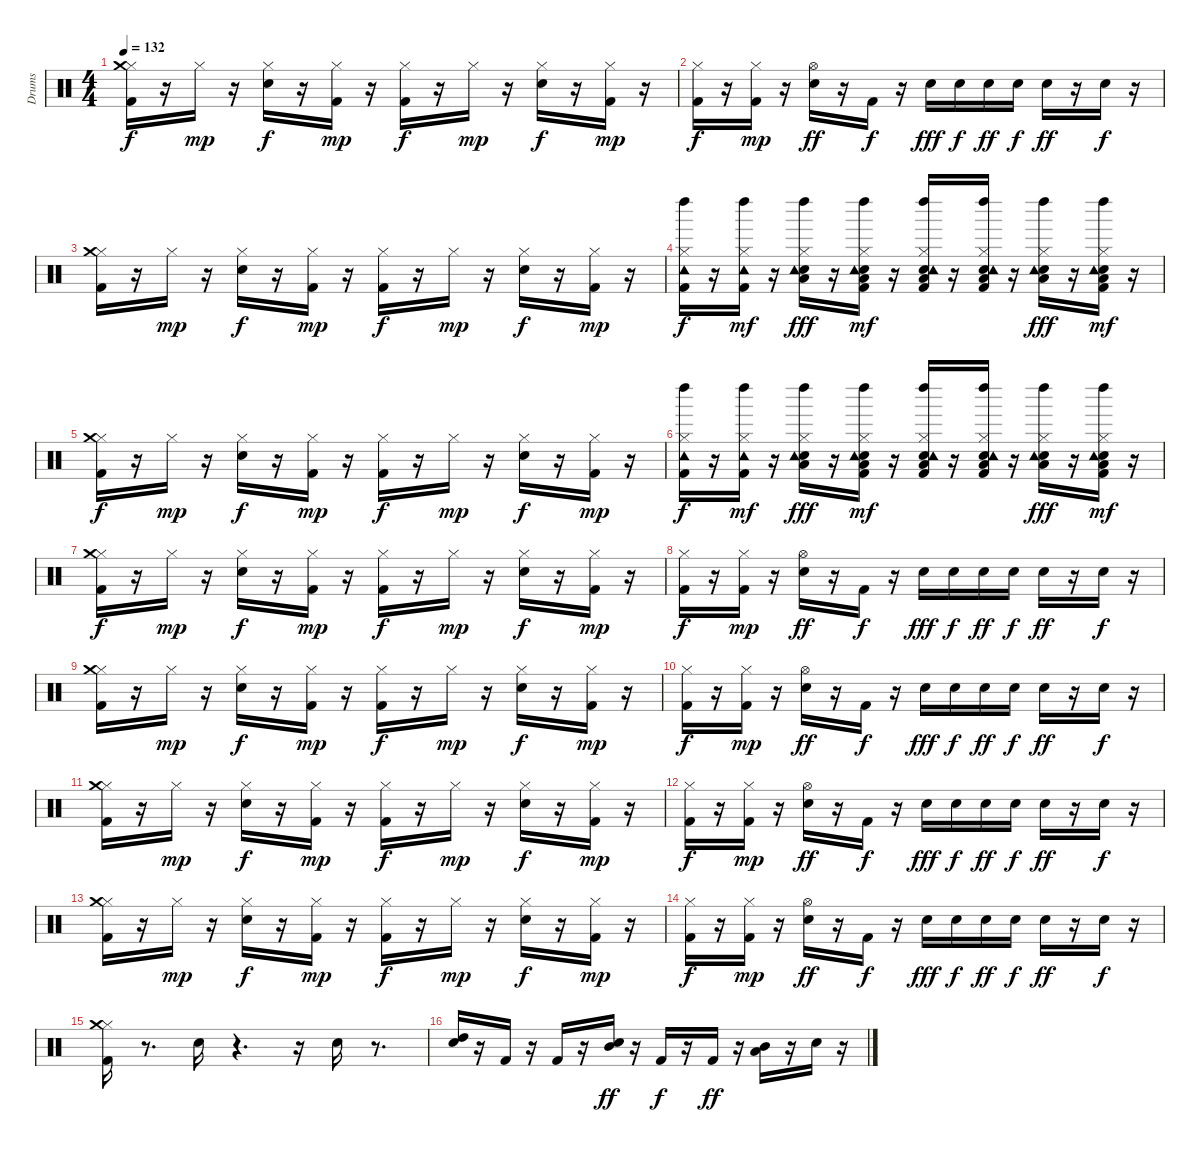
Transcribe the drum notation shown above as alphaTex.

\track ("Drums" "Drums") {instrument percussion}
\staff {score}
\articulation defaults
\ts (4 4)
\tempo 132
\clef neutral
\ks c
("Kick (hit) 2" "Hi-Hat (closed)" "Crash medium (hit)").16{dy f} r.16 "Hi-Hat (closed)".16{dy mp} r.16 ("Snare (hit) 2" "Hi-Hat (closed)").16{dy f} r.16 ("Kick (hit) 2" "Hi-Hat (closed)").16{dy mp} r.16 ("Kick (hit) 2" "Hi-Hat (closed)").16{dy f} r.16 "Hi-Hat (closed)".16{dy mp} r.16 ("Snare (hit) 2" "Hi-Hat (closed)").16{dy f} r.16 ("Kick (hit) 2" "Hi-Hat (closed)").16{dy mp} r.16 |
("Kick (hit) 2" "Hi-Hat (closed)").16{dy f} r.16 ("Kick (hit) 2" "Hi-Hat (closed)").16{dy mp} r.16 ("Snare (hit) 2" "Hi-Hat (open)").16{dy ff} r.16 "Kick (hit) 2".16{dy f} r.16 "Snare (hit) 2".16{dy fff} "Snare (hit) 2".16{dy f} "Snare (hit) 2".16{dy ff} "Snare (hit) 2".16{dy f} "Snare (hit) 2".16{dy ff} r.16 "Snare (hit) 2".16{dy f} r.16 |
("Kick (hit) 2" "Hi-Hat (closed)" "Crash medium (hit)").16 r.16 "Hi-Hat (closed)".16{dy mp} r.16 ("Snare (hit) 2" "Hi-Hat (closed)").16{dy f} r.16 ("Kick (hit) 2" "Hi-Hat (closed)").16{dy mp} r.16 ("Kick (hit) 2" "Hi-Hat (closed)").16{dy f} r.16 "Hi-Hat (closed)".16{dy mp} r.16 ("Snare (hit) 2" "Hi-Hat (closed)").16{dy f} r.16 ("Kick (hit) 2" "Hi-Hat (closed)").16{dy mp} r.16 |
("Kick (hit) 2" "Hi-Hat (closed)" "Tambourine (hit)" "Left Maraca (hit)").16{dy f} r.16 ("Kick (hit) 2" "Hi-Hat (closed)" "Tambourine (hit)" "Left Maraca (hit)").16{dy mf} r.16 ("Snare (hit) 2" "Hi-Hat (closed)" "Low Floor Tom (hit)" "Tambourine (hit)" "Left Maraca (hit)").16{dy fff} r.16 ("Kick (hit) 2" "Snare (hit) 2" "Hi-Hat (closed)" "Low Floor Tom (hit)" "Tambourine (hit)" "Left Maraca (hit)").16{dy mf} r.16 ("Kick (hit) 2" "Snare (hit) 2" "Hi-Hat (closed)" "Low Floor Tom (hit)" "Tambourine (hit)" "Left Maraca (hit)").16 r.16 ("Kick (hit) 2" "Snare (hit) 2" "Hi-Hat (closed)" "Low Floor Tom (hit)" "Tambourine (hit)" "Left Maraca (hit)").16 r.16 ("Snare (hit) 2" "Hi-Hat (closed)" "Low Floor Tom (hit)" "Tambourine (hit)" "Left Maraca (hit)").16{dy fff} r.16 ("Kick (hit) 2" "Snare (hit) 2" "Hi-Hat (closed)" "Low Floor Tom (hit)" "Tambourine (hit)" "Left Maraca (hit)").16{dy mf} r.16 |
("Kick (hit) 2" "Hi-Hat (closed)" "Crash medium (hit)").16{dy f} r.16 "Hi-Hat (closed)".16{dy mp} r.16 ("Snare (hit) 2" "Hi-Hat (closed)").16{dy f} r.16 ("Kick (hit) 2" "Hi-Hat (closed)").16{dy mp} r.16 ("Kick (hit) 2" "Hi-Hat (closed)").16{dy f} r.16 "Hi-Hat (closed)".16{dy mp} r.16 ("Snare (hit) 2" "Hi-Hat (closed)").16{dy f} r.16 ("Kick (hit) 2" "Hi-Hat (closed)").16{dy mp} r.16 |
("Kick (hit) 2" "Hi-Hat (closed)" "Tambourine (hit)" "Left Maraca (hit)").16{dy f} r.16 ("Kick (hit) 2" "Hi-Hat (closed)" "Tambourine (hit)" "Left Maraca (hit)").16{dy mf} r.16 ("Snare (hit) 2" "Hi-Hat (closed)" "Low Floor Tom (hit)" "Tambourine (hit)" "Left Maraca (hit)").16{dy fff} r.16 ("Kick (hit) 2" "Snare (hit) 2" "Hi-Hat (closed)" "Low Floor Tom (hit)" "Tambourine (hit)" "Left Maraca (hit)").16{dy mf} r.16 ("Kick (hit) 2" "Snare (hit) 2" "Hi-Hat (closed)" "Low Floor Tom (hit)" "Tambourine (hit)" "Left Maraca (hit)").16 r.16 ("Kick (hit) 2" "Snare (hit) 2" "Hi-Hat (closed)" "Low Floor Tom (hit)" "Tambourine (hit)" "Left Maraca (hit)").16 r.16 ("Snare (hit) 2" "Hi-Hat (closed)" "Low Floor Tom (hit)" "Tambourine (hit)" "Left Maraca (hit)").16{dy fff} r.16 ("Kick (hit) 2" "Snare (hit) 2" "Hi-Hat (closed)" "Low Floor Tom (hit)" "Tambourine (hit)" "Left Maraca (hit)").16{dy mf} r.16 |
("Kick (hit) 2" "Hi-Hat (closed)" "Crash medium (hit)").16{dy f} r.16 "Hi-Hat (closed)".16{dy mp} r.16 ("Snare (hit) 2" "Hi-Hat (closed)").16{dy f} r.16 ("Kick (hit) 2" "Hi-Hat (closed)").16{dy mp} r.16 ("Kick (hit) 2" "Hi-Hat (closed)").16{dy f} r.16 "Hi-Hat (closed)".16{dy mp} r.16 ("Snare (hit) 2" "Hi-Hat (closed)").16{dy f} r.16 ("Kick (hit) 2" "Hi-Hat (closed)").16{dy mp} r.16 |
("Kick (hit) 2" "Hi-Hat (closed)").16{dy f} r.16 ("Kick (hit) 2" "Hi-Hat (closed)").16{dy mp} r.16 ("Snare (hit) 2" "Hi-Hat (open)").16{dy ff} r.16 "Kick (hit) 2".16{dy f} r.16 "Snare (hit) 2".16{dy fff} "Snare (hit) 2".16{dy f} "Snare (hit) 2".16{dy ff} "Snare (hit) 2".16{dy f} "Snare (hit) 2".16{dy ff} r.16 "Snare (hit) 2".16{dy f} r.16 |
("Kick (hit) 2" "Hi-Hat (closed)" "Crash medium (hit)").16 r.16 "Hi-Hat (closed)".16{dy mp} r.16 ("Snare (hit) 2" "Hi-Hat (closed)").16{dy f} r.16 ("Kick (hit) 2" "Hi-Hat (closed)").16{dy mp} r.16 ("Kick (hit) 2" "Hi-Hat (closed)").16{dy f} r.16 "Hi-Hat (closed)".16{dy mp} r.16 ("Snare (hit) 2" "Hi-Hat (closed)").16{dy f} r.16 ("Kick (hit) 2" "Hi-Hat (closed)").16{dy mp} r.16 |
("Kick (hit) 2" "Hi-Hat (closed)").16{dy f} r.16 ("Kick (hit) 2" "Hi-Hat (closed)").16{dy mp} r.16 ("Snare (hit) 2" "Hi-Hat (open)").16{dy ff} r.16 "Kick (hit) 2".16{dy f} r.16 "Snare (hit) 2".16{dy fff} "Snare (hit) 2".16{dy f} "Snare (hit) 2".16{dy ff} "Snare (hit) 2".16{dy f} "Snare (hit) 2".16{dy ff} r.16 "Snare (hit) 2".16{dy f} r.16 |
("Kick (hit) 2" "Hi-Hat (closed)" "Crash medium (hit)").16 r.16 "Hi-Hat (closed)".16{dy mp} r.16 ("Snare (hit) 2" "Hi-Hat (closed)").16{dy f} r.16 ("Kick (hit) 2" "Hi-Hat (closed)").16{dy mp} r.16 ("Kick (hit) 2" "Hi-Hat (closed)").16{dy f} r.16 "Hi-Hat (closed)".16{dy mp} r.16 ("Snare (hit) 2" "Hi-Hat (closed)").16{dy f} r.16 ("Kick (hit) 2" "Hi-Hat (closed)").16{dy mp} r.16 |
("Kick (hit) 2" "Hi-Hat (closed)").16{dy f} r.16 ("Kick (hit) 2" "Hi-Hat (closed)").16{dy mp} r.16 ("Snare (hit) 2" "Hi-Hat (open)").16{dy ff} r.16 "Kick (hit) 2".16{dy f} r.16 "Snare (hit) 2".16{dy fff} "Snare (hit) 2".16{dy f} "Snare (hit) 2".16{dy ff} "Snare (hit) 2".16{dy f} "Snare (hit) 2".16{dy ff} r.16 "Snare (hit) 2".16{dy f} r.16 |
("Kick (hit) 2" "Hi-Hat (closed)" "Crash medium (hit)").16 r.16 "Hi-Hat (closed)".16{dy mp} r.16 ("Snare (hit) 2" "Hi-Hat (closed)").16{dy f} r.16 ("Kick (hit) 2" "Hi-Hat (closed)").16{dy mp} r.16 ("Kick (hit) 2" "Hi-Hat (closed)").16{dy f} r.16 "Hi-Hat (closed)".16{dy mp} r.16 ("Snare (hit) 2" "Hi-Hat (closed)").16{dy f} r.16 ("Kick (hit) 2" "Hi-Hat (closed)").16{dy mp} r.16 |
("Kick (hit) 2" "Hi-Hat (closed)").16{dy f} r.16 ("Kick (hit) 2" "Hi-Hat (closed)").16{dy mp} r.16 ("Snare (hit) 2" "Hi-Hat (open)").16{dy ff} r.16 "Kick (hit) 2".16{dy f} r.16 "Snare (hit) 2".16{dy fff} "Snare (hit) 2".16{dy f} "Snare (hit) 2".16{dy ff} "Snare (hit) 2".16{dy f} "Snare (hit) 2".16{dy ff} r.16 "Snare (hit) 2".16{dy f} r.16 |
("Kick (hit) 2" "Hi-Hat (closed)" "Crash medium (hit)").16 r.8{d} "Snare (hit) 2".16 r.4{d} r.16 "Snare (hit) 2".16 r.8{d} |
("Snare (hit) 2" "High Tom (hit)").16 r.16 "Kick (hit) 2".16 r.16 "Kick (hit) 2".16 r.16 ("Snare (hit) 2" "Mid Tom (hit)").16{dy ff} r.16 "Kick (hit) 2".16{dy f} r.16 "Kick (hit) 2".16{dy ff} r.16 ("Low Floor Tom (hit)" "Mid Tom (hit)").16 r.16 "Snare (hit) 2".16 r.16
